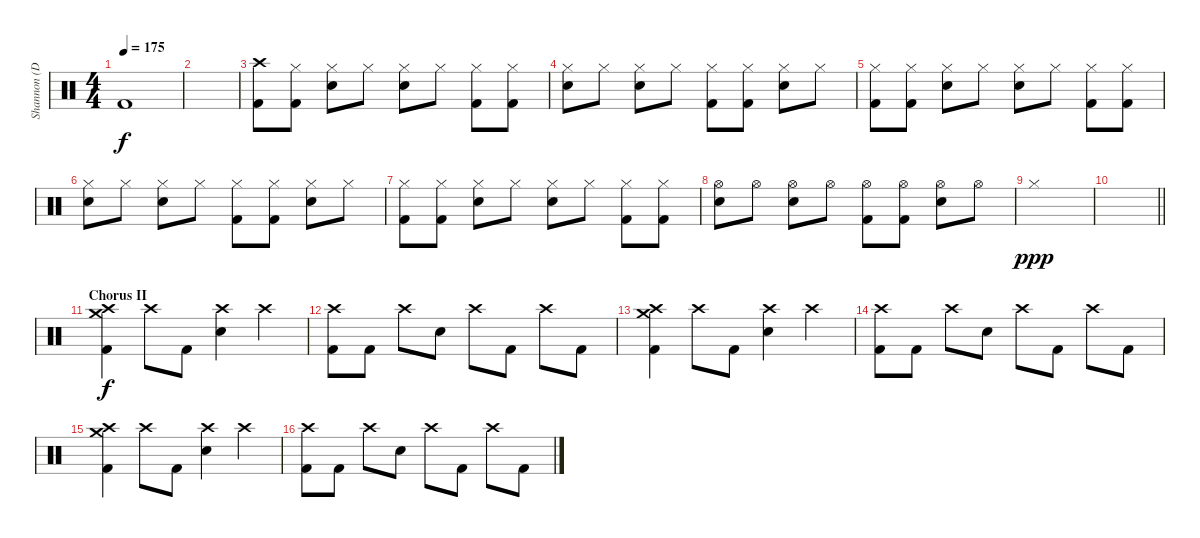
\track ("Shannon (Drum)" "Shannon (D") {instrument percussion}
\staff {score}
\articulation defaults
\ts (4 4)
\tempo 175
\clef neutral
\ks c "Kick (hit) 2".1{dy f}
|
|
("Crash high (hit)" "Kick (hit) 2").8 ("Hi-Hat (closed)" "Kick (hit) 2").8 ("Hi-Hat (closed)" "Electric Snare (hit)").8 "Hi-Hat (closed)".8 ("Hi-Hat (closed)" "Electric Snare (hit)").8 "Hi-Hat (closed)".8 ("Hi-Hat (closed)" "Kick (hit) 2").8 ("Hi-Hat (closed)" "Kick (hit) 2").8 |
("Hi-Hat (closed)" "Electric Snare (hit)").8 "Hi-Hat (closed)".8 ("Hi-Hat (closed)" "Electric Snare (hit)").8 "Hi-Hat (closed)".8 ("Hi-Hat (closed)" "Kick (hit) 2").8 ("Hi-Hat (closed)" "Kick (hit) 2").8 ("Hi-Hat (closed)" "Electric Snare (hit)").8 "Hi-Hat (closed)".8 |
("Hi-Hat (closed)" "Kick (hit) 2").8 ("Hi-Hat (closed)" "Kick (hit) 2").8 ("Hi-Hat (closed)" "Electric Snare (hit)").8 "Hi-Hat (closed)".8 ("Hi-Hat (closed)" "Electric Snare (hit)").8 "Hi-Hat (closed)".8 ("Hi-Hat (closed)" "Kick (hit) 2").8 ("Hi-Hat (closed)" "Kick (hit) 2").8 |
("Hi-Hat (closed)" "Electric Snare (hit)").8 "Hi-Hat (closed)".8 ("Hi-Hat (closed)" "Electric Snare (hit)").8 "Hi-Hat (closed)".8 ("Hi-Hat (closed)" "Kick (hit) 2").8 ("Hi-Hat (closed)" "Kick (hit) 2").8 ("Hi-Hat (closed)" "Electric Snare (hit)").8 "Hi-Hat (closed)".8 |
("Hi-Hat (closed)" "Kick (hit) 2").8 ("Hi-Hat (closed)" "Kick (hit) 2").8 ("Hi-Hat (closed)" "Electric Snare (hit)").8 "Hi-Hat (closed)".8 ("Hi-Hat (closed)" "Electric Snare (hit)").8 "Hi-Hat (closed)".8 ("Hi-Hat (closed)" "Kick (hit) 2").8 ("Hi-Hat (closed)" "Kick (hit) 2").8 |
("Hi-Hat (open)" "Electric Snare (hit)").8 "Hi-Hat (open)".8 ("Hi-Hat (open)" "Electric Snare (hit)").8 "Hi-Hat (open)".8 ("Hi-Hat (open)" "Kick (hit) 2").8 ("Hi-Hat (open)" "Kick (hit) 2").8 ("Hi-Hat (open)" "Electric Snare (hit)").8 "Hi-Hat (open)".8 |
"Hi-Hat (closed)".1{dy ppp} |
\barLineRight lightlight
|
\section ("" "Chorus II")
("Crash high (hit)" "Crash medium (hit)" "Kick (hit) 2").4{dy f} "Crash high (hit)".8 "Kick (hit) 2".8 ("Crash high (hit)" "Electric Snare (hit)").4 "Crash high (hit)".4 |
("Crash high (hit)" "Kick (hit) 2").8 "Kick (hit) 2".8 "Crash high (hit)".8 "Electric Snare (hit)".8 "Crash high (hit)".8 "Kick (hit) 2".8 "Crash high (hit)".8 "Kick (hit) 2".8 |
("Crash high (hit)" "Crash medium (hit)" "Kick (hit) 2").4 "Crash high (hit)".8 "Kick (hit) 2".8 ("Crash high (hit)" "Electric Snare (hit)").4 "Crash high (hit)".4 |
("Crash high (hit)" "Kick (hit) 2").8 "Kick (hit) 2".8 "Crash high (hit)".8 "Electric Snare (hit)".8 "Crash high (hit)".8 "Kick (hit) 2".8 "Crash high (hit)".8 "Kick (hit) 2".8 |
("Crash high (hit)" "Crash medium (hit)" "Kick (hit) 2").4 "Crash high (hit)".8 "Kick (hit) 2".8 ("Crash high (hit)" "Electric Snare (hit)").4 "Crash high (hit)".4 |
("Crash high (hit)" "Kick (hit) 2").8 "Kick (hit) 2".8 "Crash high (hit)".8 "Electric Snare (hit)".8 "Crash high (hit)".8 "Kick (hit) 2".8 "Crash high (hit)".8 "Kick (hit) 2".8
